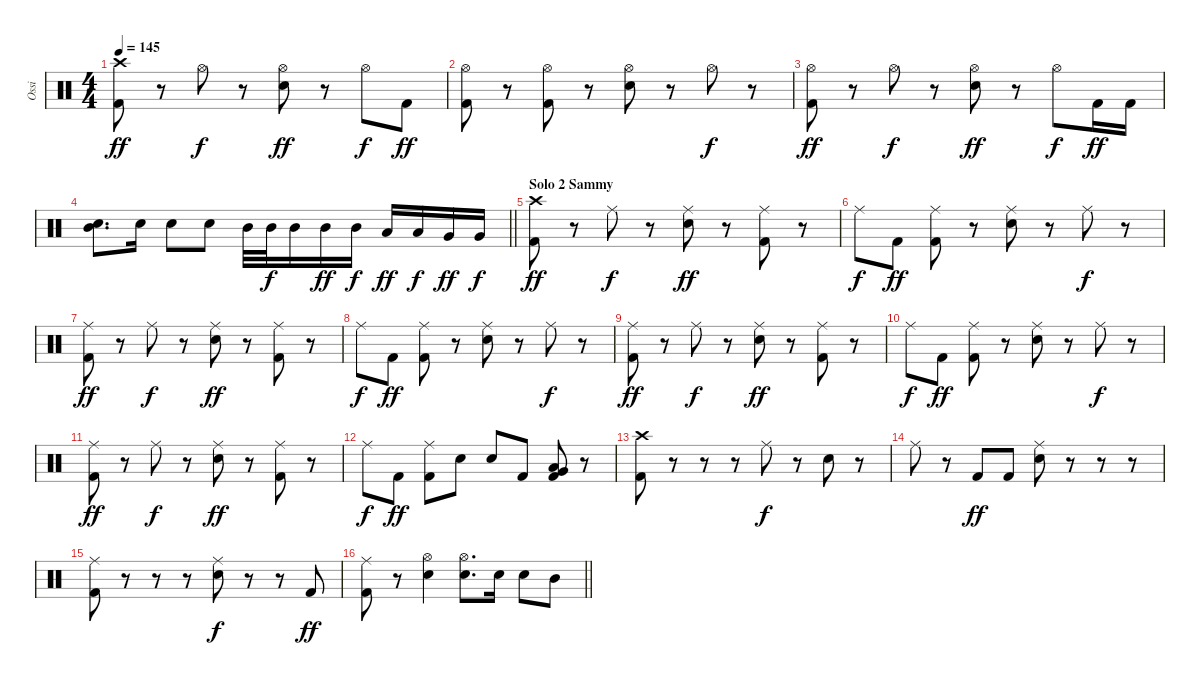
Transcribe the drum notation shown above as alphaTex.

\track ("Ossi" "Ossi") {instrument percussion}
\staff {score}
\articulation defaults
\ts (4 4)
\tempo 145
\clef neutral
\ks c
("Crash high (hit)" "Kick (hit) 2").8{dy ff} r.8 "Hi-Hat (open)".8{dy f} r.8 ("Hi-Hat (open)" "Electric Snare (hit)").8{dy ff} r.8 "Hi-Hat (open)".8{dy f} "Kick (hit) 2".8{dy ff} |
("Hi-Hat (open)" "Kick (hit) 2").8 r.8 ("Hi-Hat (open)" "Kick (hit) 2").8 r.8 ("Hi-Hat (open)" "Electric Snare (hit)").8 r.8 "Hi-Hat (open)".8{dy f} r.8 |
("Hi-Hat (open)" "Kick (hit) 2").8{dy ff} r.8 "Hi-Hat (open)".8{dy f} r.8 ("Hi-Hat (open)" "Electric Snare (hit)").8{dy ff} r.8 "Hi-Hat (open)".8{dy f} "Kick (hit) 2".16{dy ff} "Kick (hit) 2".16 |
\barLineRight lightlight
("Mid Tom (hit)" "Electric Snare (hit)").8{d} "Electric Snare (hit)".16 "Electric Snare (hit)".8 "Electric Snare (hit)".8 "Mid Tom (hit)".32 "Mid Tom (hit)".32{dy f} "Mid Tom (hit)".16 "Mid Tom (hit)".16{dy ff} "Mid Tom (hit)".16{dy f} "Low Tom (hit)".16{dy ff} "Low Tom (hit)".16{dy f} "Very Low Tom (hit)".16{dy ff} "Very Low Tom (hit)".16{dy f} |
\section ("" "Solo 2 Sammy")
("Crash high (hit)" "Kick (hit) 2").8{dy ff} r.8 "Ride (middle)".8{dy f} r.8 ("Ride (middle)" "Electric Snare (hit)").8{dy ff} r.8 ("Ride (middle)" "Kick (hit) 2").8 r.8 |
"Ride (middle)".8{dy f} "Kick (hit) 2".8{dy ff} ("Ride (middle)" "Kick (hit) 2").8 r.8 ("Ride (middle)" "Electric Snare (hit)").8 r.8 "Ride (middle)".8{dy f} r.8 |
("Ride (middle)" "Kick (hit) 2").8{dy ff} r.8 "Ride (middle)".8{dy f} r.8 ("Ride (middle)" "Electric Snare (hit)").8{dy ff} r.8 ("Ride (middle)" "Kick (hit) 2").8 r.8 |
"Ride (middle)".8{dy f} "Kick (hit) 2".8{dy ff} ("Ride (middle)" "Kick (hit) 2").8 r.8 ("Ride (middle)" "Electric Snare (hit)").8 r.8 "Ride (middle)".8{dy f} r.8 |
("Ride (middle)" "Kick (hit) 2").8{dy ff} r.8 "Ride (middle)".8{dy f} r.8 ("Ride (middle)" "Electric Snare (hit)").8{dy ff} r.8 ("Ride (middle)" "Kick (hit) 2").8 r.8 |
"Ride (middle)".8{dy f} "Kick (hit) 2".8{dy ff} ("Ride (middle)" "Kick (hit) 2").8 r.8 ("Ride (middle)" "Electric Snare (hit)").8 r.8 "Ride (middle)".8{dy f} r.8 |
("Ride (middle)" "Kick (hit) 2").8{dy ff} r.8 "Ride (middle)".8{dy f} r.8 ("Ride (middle)" "Electric Snare (hit)").8{dy ff} r.8 ("Ride (middle)" "Kick (hit) 2").8 r.8 |
"Ride (middle)".8{dy f} "Kick (hit) 2".8{dy ff} ("Ride (middle)" "Kick (hit) 2").8 "Electric Snare (hit)".8 "Electric Snare (hit)".8 "Kick (hit) 2".8 ("Low Tom (hit)" "Very Low Tom (hit)" "Kick (hit) 2").8 r.8 |
("Crash high (hit)" "Kick (hit) 2").8 r.8 r.8 r.8 "Ride (middle)".8{dy f} r.8 "Electric Snare (hit)".8 r.8 |
"Ride (middle)".8 r.8 "Kick (hit) 2".8{dy ff} "Kick (hit) 2".8 ("Ride (middle)" "Electric Snare (hit)").8 r.8 r.8 r.8 |
("Ride (middle)" "Kick (hit) 2").8 r.8 r.8 r.8 ("Ride (middle)" "Electric Snare (hit)").8{dy f} r.8 r.8 "Kick (hit) 2".8{dy ff} |
\barLineRight lightlight
("Ride (middle)" "Kick (hit) 2").8 r.8 ("Hi-Hat (open)" "Electric Snare (hit)").4 ("Hi-Hat (open)" "Electric Snare (hit)").8{d} "Electric Snare (hit)".16 "Electric Snare (hit)".8 "Mid Tom (hit)".8
